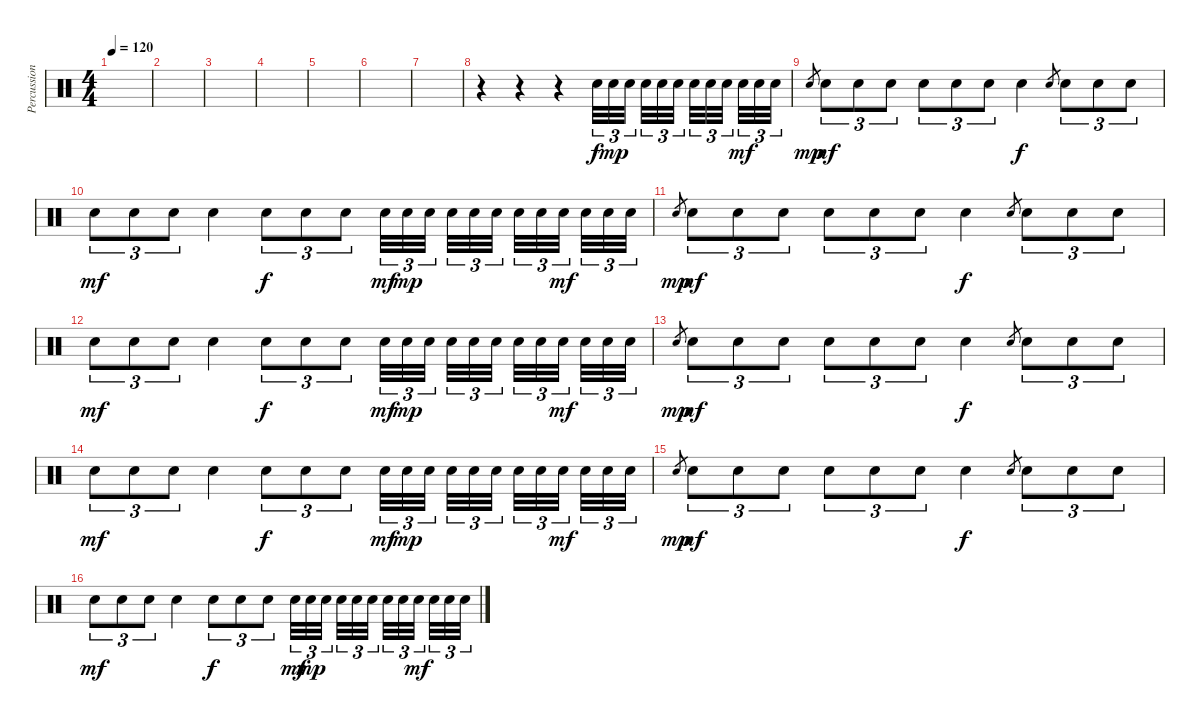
\track ("Percussion" "Percussion") {instrument percussion}
\staff {score}
\articulation defaults
\ts (4 4)
\tempo 120
\clef neutral
\ks c
|
|
|
|
|
|
|
r.4 r.4 r.4 "Electric Snare (hit)".32{tu (3 2)} "Electric Snare (hit)".32{tu (3 2) dy mp} "Electric Snare (hit)".32{tu (3 2)} "Electric Snare (hit)".32{tu (3 2)} "Electric Snare (hit)".32{tu (3 2)} "Electric Snare (hit)".32{tu (3 2)} "Electric Snare (hit)".32{tu (3 2)} "Electric Snare (hit)".32{tu (3 2)} "Electric Snare (hit)".32{tu (3 2)} "Electric Snare (hit)".32{tu (3 2) dy mf} "Electric Snare (hit)".32{tu (3 2)} "Electric Snare (hit)".32{tu (3 2)} |
"Electric Snare (hit)".8{gr dy mp} "Electric Snare (hit)".8{tu (3 2) dy mf} "Electric Snare (hit)".8{tu (3 2)} "Electric Snare (hit)".8{tu (3 2)} "Electric Snare (hit)".8{tu (3 2)} "Electric Snare (hit)".8{tu (3 2)} "Electric Snare (hit)".8{tu (3 2)} "Electric Snare (hit)".4{dy f} "Electric Snare (hit)".8{gr} "Electric Snare (hit)".8{tu (3 2)} "Electric Snare (hit)".8{tu (3 2)} "Electric Snare (hit)".8{tu (3 2)} |
"Electric Snare (hit)".8{tu (3 2) dy mf} "Electric Snare (hit)".8{tu (3 2)} "Electric Snare (hit)".8{tu (3 2)} "Electric Snare (hit)".4 "Electric Snare (hit)".8{tu (3 2) dy f} "Electric Snare (hit)".8{tu (3 2)} "Electric Snare (hit)".8{tu (3 2)} "Electric Snare (hit)".32{tu (3 2) dy mf} "Electric Snare (hit)".32{tu (3 2) dy mp} "Electric Snare (hit)".32{tu (3 2)} "Electric Snare (hit)".32{tu (3 2)} "Electric Snare (hit)".32{tu (3 2)} "Electric Snare (hit)".32{tu (3 2)} "Electric Snare (hit)".32{tu (3 2)} "Electric Snare (hit)".32{tu (3 2)} "Electric Snare (hit)".32{tu (3 2) dy mf} "Electric Snare (hit)".32{tu (3 2)} "Electric Snare (hit)".32{tu (3 2)} "Electric Snare (hit)".32{tu (3 2)} |
"Electric Snare (hit)".8{gr dy mp} "Electric Snare (hit)".8{tu (3 2) dy mf} "Electric Snare (hit)".8{tu (3 2)} "Electric Snare (hit)".8{tu (3 2)} "Electric Snare (hit)".8{tu (3 2)} "Electric Snare (hit)".8{tu (3 2)} "Electric Snare (hit)".8{tu (3 2)} "Electric Snare (hit)".4{dy f} "Electric Snare (hit)".8{gr} "Electric Snare (hit)".8{tu (3 2)} "Electric Snare (hit)".8{tu (3 2)} "Electric Snare (hit)".8{tu (3 2)} |
"Electric Snare (hit)".8{tu (3 2) dy mf} "Electric Snare (hit)".8{tu (3 2)} "Electric Snare (hit)".8{tu (3 2)} "Electric Snare (hit)".4 "Electric Snare (hit)".8{tu (3 2) dy f} "Electric Snare (hit)".8{tu (3 2)} "Electric Snare (hit)".8{tu (3 2)} "Electric Snare (hit)".32{tu (3 2) dy mf} "Electric Snare (hit)".32{tu (3 2) dy mp} "Electric Snare (hit)".32{tu (3 2)} "Electric Snare (hit)".32{tu (3 2)} "Electric Snare (hit)".32{tu (3 2)} "Electric Snare (hit)".32{tu (3 2)} "Electric Snare (hit)".32{tu (3 2)} "Electric Snare (hit)".32{tu (3 2)} "Electric Snare (hit)".32{tu (3 2) dy mf} "Electric Snare (hit)".32{tu (3 2)} "Electric Snare (hit)".32{tu (3 2)} "Electric Snare (hit)".32{tu (3 2)} |
"Electric Snare (hit)".8{gr dy mp} "Electric Snare (hit)".8{tu (3 2) dy mf} "Electric Snare (hit)".8{tu (3 2)} "Electric Snare (hit)".8{tu (3 2)} "Electric Snare (hit)".8{tu (3 2)} "Electric Snare (hit)".8{tu (3 2)} "Electric Snare (hit)".8{tu (3 2)} "Electric Snare (hit)".4{dy f} "Electric Snare (hit)".8{gr} "Electric Snare (hit)".8{tu (3 2)} "Electric Snare (hit)".8{tu (3 2)} "Electric Snare (hit)".8{tu (3 2)} |
"Electric Snare (hit)".8{tu (3 2) dy mf} "Electric Snare (hit)".8{tu (3 2)} "Electric Snare (hit)".8{tu (3 2)} "Electric Snare (hit)".4 "Electric Snare (hit)".8{tu (3 2) dy f} "Electric Snare (hit)".8{tu (3 2)} "Electric Snare (hit)".8{tu (3 2)} "Electric Snare (hit)".32{tu (3 2) dy mf} "Electric Snare (hit)".32{tu (3 2) dy mp} "Electric Snare (hit)".32{tu (3 2)} "Electric Snare (hit)".32{tu (3 2)} "Electric Snare (hit)".32{tu (3 2)} "Electric Snare (hit)".32{tu (3 2)} "Electric Snare (hit)".32{tu (3 2)} "Electric Snare (hit)".32{tu (3 2)} "Electric Snare (hit)".32{tu (3 2) dy mf} "Electric Snare (hit)".32{tu (3 2)} "Electric Snare (hit)".32{tu (3 2)} "Electric Snare (hit)".32{tu (3 2)} |
"Electric Snare (hit)".8{gr dy mp} "Electric Snare (hit)".8{tu (3 2) dy mf} "Electric Snare (hit)".8{tu (3 2)} "Electric Snare (hit)".8{tu (3 2)} "Electric Snare (hit)".8{tu (3 2)} "Electric Snare (hit)".8{tu (3 2)} "Electric Snare (hit)".8{tu (3 2)} "Electric Snare (hit)".4{dy f} "Electric Snare (hit)".8{gr} "Electric Snare (hit)".8{tu (3 2)} "Electric Snare (hit)".8{tu (3 2)} "Electric Snare (hit)".8{tu (3 2)} |
"Electric Snare (hit)".8{tu (3 2) dy mf} "Electric Snare (hit)".8{tu (3 2)} "Electric Snare (hit)".8{tu (3 2)} "Electric Snare (hit)".4 "Electric Snare (hit)".8{tu (3 2) dy f} "Electric Snare (hit)".8{tu (3 2)} "Electric Snare (hit)".8{tu (3 2)} "Electric Snare (hit)".32{tu (3 2) dy mf} "Electric Snare (hit)".32{tu (3 2) dy mp} "Electric Snare (hit)".32{tu (3 2)} "Electric Snare (hit)".32{tu (3 2)} "Electric Snare (hit)".32{tu (3 2)} "Electric Snare (hit)".32{tu (3 2)} "Electric Snare (hit)".32{tu (3 2)} "Electric Snare (hit)".32{tu (3 2)} "Electric Snare (hit)".32{tu (3 2) dy mf} "Electric Snare (hit)".32{tu (3 2)} "Electric Snare (hit)".32{tu (3 2)} "Electric Snare (hit)".32{tu (3 2)}
